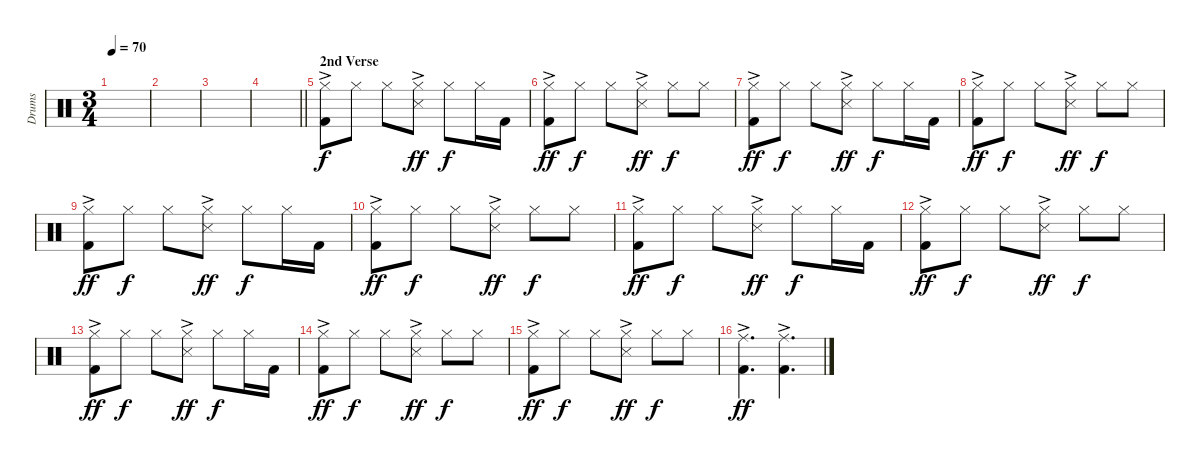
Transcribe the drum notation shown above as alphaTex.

\track ("Drums" "Drums") {instrument percussion}
\staff {score}
\articulation defaults
\ts (3 4)
\tempo 70
\clef neutral
\ks c
|
|
|
\barLineRight lightlight
|
\section ("" "2nd Verse")
("Hi-Hat (closed)" "Kick (hit) 2"{ac}).8 "Hi-Hat (closed)".8{dy f} "Hi-Hat (closed)".8 ("Hi-Hat (closed)" "Snare (side stick) 3"{ac}).8{dy ff} "Hi-Hat (closed)".8{dy f} "Hi-Hat (closed)".16 "Kick (hit) 2".16 |
("Hi-Hat (closed)" "Kick (hit) 2"{ac}).8{dy ff} "Hi-Hat (closed)".8{dy f} "Hi-Hat (closed)".8 ("Hi-Hat (closed)" "Snare (side stick) 3"{ac}).8{dy ff} "Hi-Hat (closed)".8{dy f} "Hi-Hat (closed)".8 |
("Hi-Hat (closed)" "Kick (hit) 2"{ac}).8{dy ff} "Hi-Hat (closed)".8{dy f} "Hi-Hat (closed)".8 ("Hi-Hat (closed)" "Snare (side stick) 3"{ac}).8{dy ff} "Hi-Hat (closed)".8{dy f} "Hi-Hat (closed)".16 "Kick (hit) 2".16 |
("Hi-Hat (closed)" "Kick (hit) 2"{ac}).8{dy ff} "Hi-Hat (closed)".8{dy f} "Hi-Hat (closed)".8 ("Hi-Hat (closed)" "Snare (side stick) 3"{ac}).8{dy ff} "Hi-Hat (closed)".8{dy f} "Hi-Hat (closed)".8 |
("Hi-Hat (closed)" "Kick (hit) 2"{ac}).8{dy ff} "Hi-Hat (closed)".8{dy f} "Hi-Hat (closed)".8 ("Hi-Hat (closed)" "Snare (side stick) 3"{ac}).8{dy ff} "Hi-Hat (closed)".8{dy f} "Hi-Hat (closed)".16 "Kick (hit) 2".16 |
("Hi-Hat (closed)" "Kick (hit) 2"{ac}).8{dy ff} "Hi-Hat (closed)".8{dy f} "Hi-Hat (closed)".8 ("Hi-Hat (closed)" "Snare (side stick) 3"{ac}).8{dy ff} "Hi-Hat (closed)".8{dy f} "Hi-Hat (closed)".8 |
("Hi-Hat (closed)" "Kick (hit) 2"{ac}).8{dy ff} "Hi-Hat (closed)".8{dy f} "Hi-Hat (closed)".8 ("Hi-Hat (closed)" "Snare (side stick) 3"{ac}).8{dy ff} "Hi-Hat (closed)".8{dy f} "Hi-Hat (closed)".16 "Kick (hit) 2".16 |
("Hi-Hat (closed)" "Kick (hit) 2"{ac}).8{dy ff} "Hi-Hat (closed)".8{dy f} "Hi-Hat (closed)".8 ("Hi-Hat (closed)" "Snare (side stick) 3"{ac}).8{dy ff} "Hi-Hat (closed)".8{dy f} "Hi-Hat (closed)".8 |
("Hi-Hat (closed)" "Kick (hit) 2"{ac}).8{dy ff} "Hi-Hat (closed)".8{dy f} "Hi-Hat (closed)".8 ("Hi-Hat (closed)" "Snare (side stick) 3"{ac}).8{dy ff} "Hi-Hat (closed)".8{dy f} "Hi-Hat (closed)".16 "Kick (hit) 2".16 |
("Hi-Hat (closed)" "Kick (hit) 2"{ac}).8{dy ff} "Hi-Hat (closed)".8{dy f} "Hi-Hat (closed)".8 ("Hi-Hat (closed)" "Snare (side stick) 3"{ac}).8{dy ff} "Hi-Hat (closed)".8{dy f} "Hi-Hat (closed)".8 |
("Hi-Hat (closed)" "Kick (hit) 2"{ac}).8{dy ff} "Hi-Hat (closed)".8{dy f} "Hi-Hat (closed)".8 ("Hi-Hat (closed)" "Snare (side stick) 3"{ac}).8{dy ff} "Hi-Hat (closed)".8{dy f} "Hi-Hat (closed)".8 |
("Ride (middle)" "Kick (hit) 2"{ac}).4{d dy ff} ("Ride (middle)" "Kick (hit) 2"{ac}).4{d}
